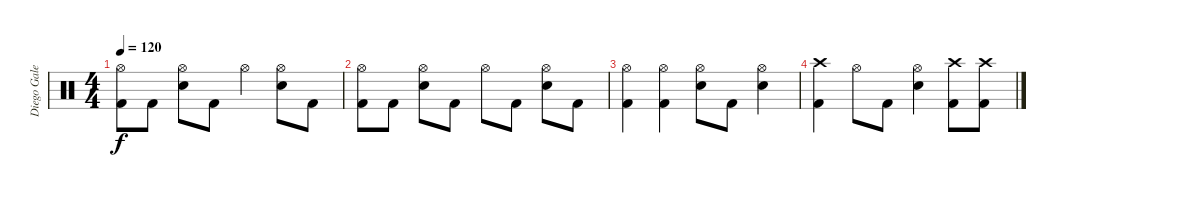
\track ("Diego Galeri (batteria)" "Diego Gale") {instrument percussion}
\staff {score}
\articulation defaults
\ts (4 4)
\tempo 120
\clef neutral
\ks c
("Hi-Hat (open)" "Kick (hit) 2").8{dy f} "Kick (hit) 2".8 ("Hi-Hat (open)" "Electric Snare (hit)").8 "Kick (hit) 2".8 "Hi-Hat (open)".4 ("Hi-Hat (open)" "Electric Snare (hit)").8 "Kick (hit) 2".8 |
("Hi-Hat (open)" "Kick (hit) 2").8 "Kick (hit) 2".8 ("Hi-Hat (open)" "Electric Snare (hit)").8 "Kick (hit) 2".8 "Hi-Hat (open)".8 "Kick (hit) 2".8 ("Hi-Hat (open)" "Electric Snare (hit)").8 "Kick (hit) 2".8 |
("Hi-Hat (open)" "Kick (hit) 2").4 ("Hi-Hat (open)" "Kick (hit) 2").4 ("Hi-Hat (open)" "Electric Snare (hit)").8 "Kick (hit) 2".8 ("Hi-Hat (open)" "Electric Snare (hit)").4 |
("Kick (hit) 2" "Crash high (hit)").4 "Hi-Hat (open)".8 "Kick (hit) 2".8 ("Hi-Hat (open)" "Electric Snare (hit)").4 ("Kick (hit) 2" "Crash high (hit)").8 ("Kick (hit) 2" "Crash high (hit)").8
